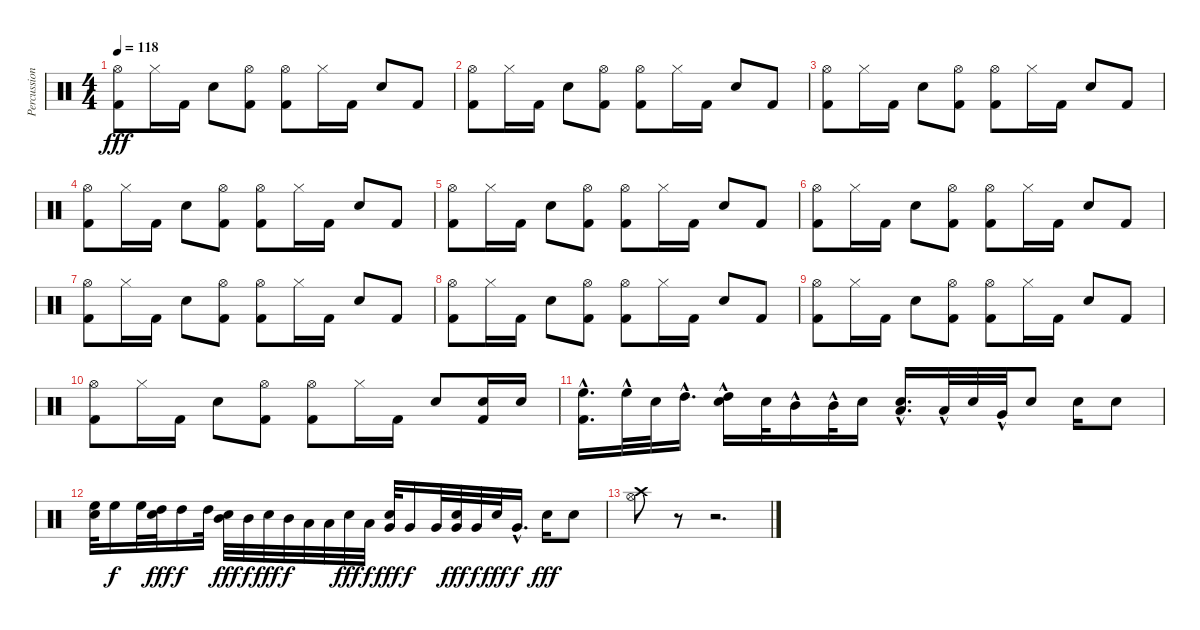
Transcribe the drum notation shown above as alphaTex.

\track ("Percussion" "Percussion") {instrument percussion}
\staff {score}
\articulation defaults
\ts (4 4)
\tempo 118
\clef neutral
\ks c
("Hi-Hat (open)" "Kick (hit) 2").8{dy fff} "Hi-Hat (closed)".16 "Kick (hit) 2".16 "Electric Snare (hit)".8 ("Hi-Hat (open)" "Kick (hit) 2").8 ("Hi-Hat (open)" "Kick (hit) 2").8 "Hi-Hat (closed)".16 "Kick (hit) 2".16 "Electric Snare (hit)".8 "Kick (hit) 2".8 |
("Hi-Hat (open)" "Kick (hit) 2").8 "Hi-Hat (closed)".16 "Kick (hit) 2".16 "Electric Snare (hit)".8 ("Hi-Hat (open)" "Kick (hit) 2").8 ("Hi-Hat (open)" "Kick (hit) 2").8 "Hi-Hat (closed)".16 "Kick (hit) 2".16 "Electric Snare (hit)".8 "Kick (hit) 2".8 |
("Hi-Hat (open)" "Kick (hit) 2").8 "Hi-Hat (closed)".16 "Kick (hit) 2".16 "Electric Snare (hit)".8 ("Hi-Hat (open)" "Kick (hit) 2").8 ("Hi-Hat (open)" "Kick (hit) 2").8 "Hi-Hat (closed)".16 "Kick (hit) 2".16 "Electric Snare (hit)".8 "Kick (hit) 2".8 |
("Hi-Hat (open)" "Kick (hit) 2").8 "Hi-Hat (closed)".16 "Kick (hit) 2".16 "Electric Snare (hit)".8 ("Hi-Hat (open)" "Kick (hit) 2").8 ("Hi-Hat (open)" "Kick (hit) 2").8 "Hi-Hat (closed)".16 "Kick (hit) 2".16 "Electric Snare (hit)".8 "Kick (hit) 2".8 |
("Hi-Hat (open)" "Kick (hit) 2").8 "Hi-Hat (closed)".16 "Kick (hit) 2".16 "Electric Snare (hit)".8 ("Hi-Hat (open)" "Kick (hit) 2").8 ("Hi-Hat (open)" "Kick (hit) 2").8 "Hi-Hat (closed)".16 "Kick (hit) 2".16 "Electric Snare (hit)".8 "Kick (hit) 2".8 |
("Hi-Hat (open)" "Kick (hit) 2").8 "Hi-Hat (closed)".16 "Kick (hit) 2".16 "Electric Snare (hit)".8 ("Hi-Hat (open)" "Kick (hit) 2").8 ("Hi-Hat (open)" "Kick (hit) 2").8 "Hi-Hat (closed)".16 "Kick (hit) 2".16 "Electric Snare (hit)".8 "Kick (hit) 2".8 |
("Hi-Hat (open)" "Kick (hit) 2").8 "Hi-Hat (closed)".16 "Kick (hit) 2".16 "Electric Snare (hit)".8 ("Hi-Hat (open)" "Kick (hit) 2").8 ("Hi-Hat (open)" "Kick (hit) 2").8 "Hi-Hat (closed)".16 "Kick (hit) 2".16 "Electric Snare (hit)".8 "Kick (hit) 2".8 |
("Hi-Hat (open)" "Kick (hit) 2").8 "Hi-Hat (closed)".16 "Kick (hit) 2".16 "Electric Snare (hit)".8 ("Hi-Hat (open)" "Kick (hit) 2").8 ("Hi-Hat (open)" "Kick (hit) 2").8 "Hi-Hat (closed)".16 "Kick (hit) 2".16 "Electric Snare (hit)".8 "Kick (hit) 2".8 |
("Hi-Hat (open)" "Kick (hit) 2").8 "Hi-Hat (closed)".16 "Kick (hit) 2".16 "Electric Snare (hit)".8 ("Hi-Hat (open)" "Kick (hit) 2").8 ("Hi-Hat (open)" "Kick (hit) 2").8 "Hi-Hat (closed)".16 "Kick (hit) 2".16 "Electric Snare (hit)".8 "Kick (hit) 2".8 |
("Hi-Hat (open)" "Kick (hit) 2").8 "Hi-Hat (closed)".16 "Kick (hit) 2".16 "Electric Snare (hit)".8 ("Hi-Hat (open)" "Kick (hit) 2").8 ("Hi-Hat (open)" "Kick (hit) 2").8 "Hi-Hat (closed)".16 "Kick (hit) 2".16 "Electric Snare (hit)".8 ("Kick (hit) 2" "Electric Snare (hit)").16 "Electric Snare (hit)".16 |
("High Floor Tom (hit)"{hac} "Kick (hit) 2").16{d} "High Floor Tom (hit)"{hac}.32 "Electric Snare (hit)".32 "High Tom (hit)"{hac}.16{d} ("High Tom (hit)"{hac} "Electric Snare (hit)").16 "Electric Snare (hit)".32 "Mid Tom (hit)"{hac}.16 "Mid Tom (hit)"{hac}.32 "Electric Snare (hit)".16 ("Low Tom (hit)"{hac} "Electric Snare (hit)").16{d} "Low Tom (hit)"{hac}.32 "Electric Snare (hit)".32 "Very Low Tom (hit)"{hac}.32 "Electric Snare (hit)".8 "Electric Snare (hit)".16 "Electric Snare (hit)".8 |
("High Floor Tom (hit)" "Electric Snare (hit)").32 "High Floor Tom (hit)".16{dy f} "High Floor Tom (hit)".32 ("High Tom (hit)" "Electric Snare (hit)").32{dy fff} "High Tom (hit)".16{dy f} "High Tom (hit)".32 ("Mid Tom (hit)" "Electric Snare (hit)").32{dy fff} "Mid Tom (hit)".32{dy f} "Electric Snare (hit)".32{dy fff} "Mid Tom (hit)".32{dy f} "Low Tom (hit)".32 "Low Tom (hit)".32 "Electric Snare (hit)".32{dy fff} "Low Tom (hit)".32{dy f} ("Very Low Tom (hit)" "Electric Snare (hit)").32{dy fff} "Very Low Tom (hit)".16{dy f} "Very Low Tom (hit)".32 ("Very Low Tom (hit)" "Electric Snare (hit)").32{dy fff} "Very Low Tom (hit)".32{dy f} "Electric Snare (hit)".32{dy fff} "Very Low Tom (hit)"{hac}.16{d dy f} "Electric Snare (hit)".16{dy fff} "Electric Snare (hit)".8 |
("Hi-Hat (open)" "Crash high (hit)").8 r.8 r.2{d}
